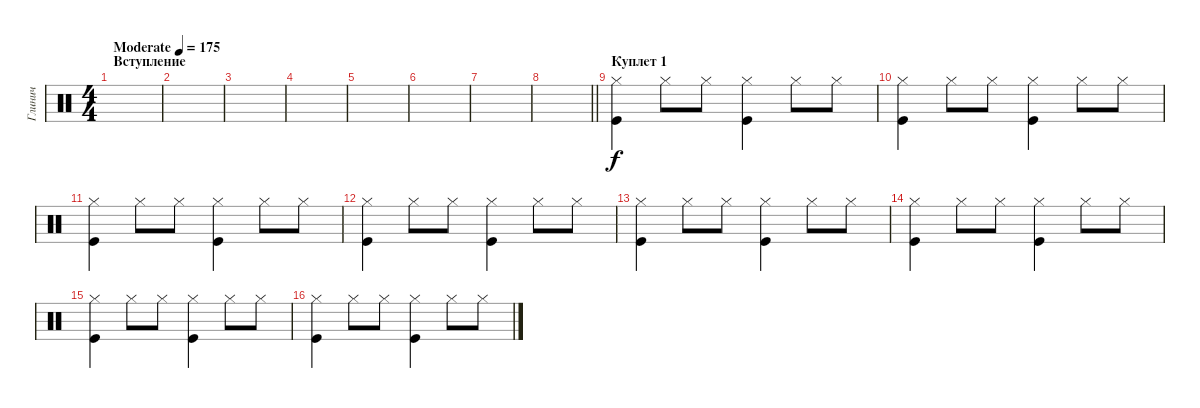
\track ("Глинич" "Глинич") {instrument percussion}
\staff {score}
\articulation defaults
\ts (4 4)
\section ("" "Вступление")
\tempo (175 "Moderate")
\clef neutral
\ks c
|
|
|
|
|
|
|
\barLineRight lightlight
|
\section ("" "Куплет 1")
("Hi-Hat (closed)" "Kick (hit)").4 "Hi-Hat (closed)".8 "Hi-Hat (closed)".8 ("Hi-Hat (closed)" "Kick (hit)").4 "Hi-Hat (closed)".8 "Hi-Hat (closed)".8 |
("Hi-Hat (closed)" "Kick (hit)").4 "Hi-Hat (closed)".8 "Hi-Hat (closed)".8 ("Hi-Hat (closed)" "Kick (hit)").4 "Hi-Hat (closed)".8 "Hi-Hat (closed)".8 |
("Hi-Hat (closed)" "Kick (hit)").4 "Hi-Hat (closed)".8 "Hi-Hat (closed)".8 ("Hi-Hat (closed)" "Kick (hit)").4 "Hi-Hat (closed)".8 "Hi-Hat (closed)".8 |
("Hi-Hat (closed)" "Kick (hit)").4 "Hi-Hat (closed)".8 "Hi-Hat (closed)".8 ("Hi-Hat (closed)" "Kick (hit)").4 "Hi-Hat (closed)".8 "Hi-Hat (closed)".8 |
("Hi-Hat (closed)" "Kick (hit)").4 "Hi-Hat (closed)".8 "Hi-Hat (closed)".8 ("Hi-Hat (closed)" "Kick (hit)").4 "Hi-Hat (closed)".8 "Hi-Hat (closed)".8 |
("Hi-Hat (closed)" "Kick (hit)").4 "Hi-Hat (closed)".8 "Hi-Hat (closed)".8 ("Hi-Hat (closed)" "Kick (hit)").4 "Hi-Hat (closed)".8 "Hi-Hat (closed)".8 |
("Hi-Hat (closed)" "Kick (hit)").4 "Hi-Hat (closed)".8 "Hi-Hat (closed)".8 ("Hi-Hat (closed)" "Kick (hit)").4 "Hi-Hat (closed)".8 "Hi-Hat (closed)".8 |
("Hi-Hat (closed)" "Kick (hit)").4 "Hi-Hat (closed)".8 "Hi-Hat (closed)".8 ("Hi-Hat (closed)" "Kick (hit)").4 "Hi-Hat (closed)".8 "Hi-Hat (closed)".8
